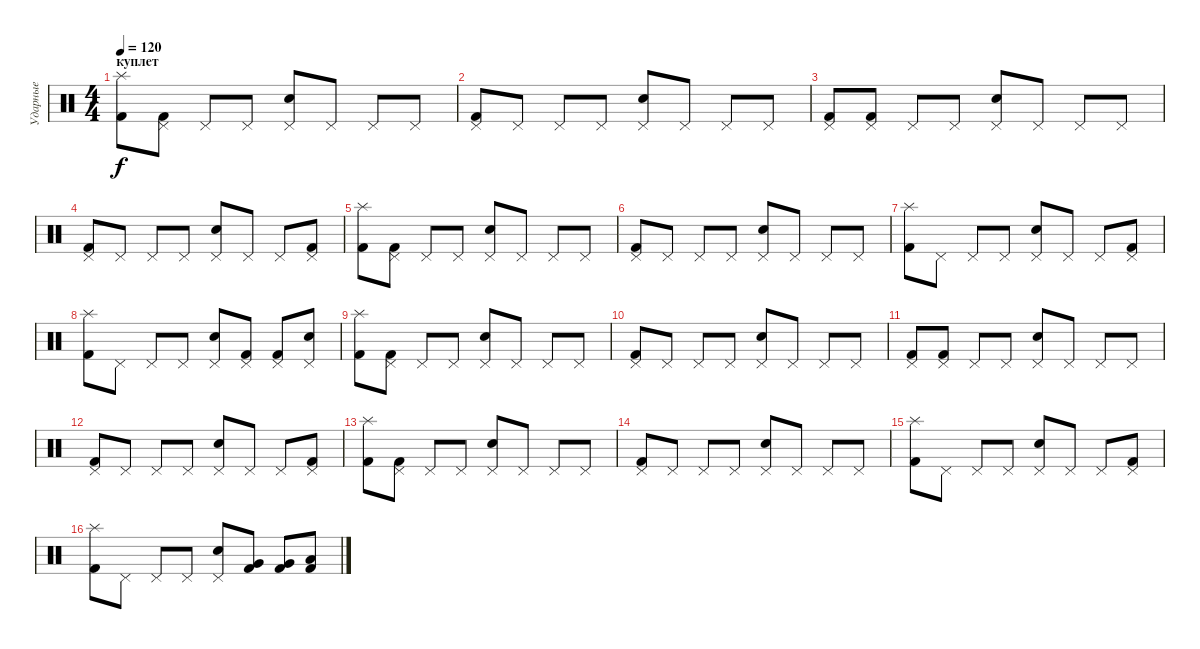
\track ("Ударные" "Ударные") {instrument percussion}
\staff {score}
\articulation defaults
\ts (4 4)
\section ("" "куплет")
\tempo 120
\clef neutral
\ks c
("Splash (hit)" "Kick (hit) 2").8{dy f} ("Pedal Hi-Hat (hit)" "Kick (hit) 2").8 "Pedal Hi-Hat (hit)".8 "Pedal Hi-Hat (hit)".8 ("Pedal Hi-Hat (hit)" "Snare (hit) 2").8 "Pedal Hi-Hat (hit)".8 "Pedal Hi-Hat (hit)".8 "Pedal Hi-Hat (hit)".8 |
("Pedal Hi-Hat (hit)" "Kick (hit) 2").8 "Pedal Hi-Hat (hit)".8 "Pedal Hi-Hat (hit)".8 "Pedal Hi-Hat (hit)".8 ("Pedal Hi-Hat (hit)" "Snare (hit) 2").8 "Pedal Hi-Hat (hit)".8 "Pedal Hi-Hat (hit)".8 "Pedal Hi-Hat (hit)".8 |
("Pedal Hi-Hat (hit)" "Kick (hit) 2").8 ("Pedal Hi-Hat (hit)" "Kick (hit) 2").8 "Pedal Hi-Hat (hit)".8 "Pedal Hi-Hat (hit)".8 ("Pedal Hi-Hat (hit)" "Snare (hit) 2").8 "Pedal Hi-Hat (hit)".8 "Pedal Hi-Hat (hit)".8 "Pedal Hi-Hat (hit)".8 |
("Pedal Hi-Hat (hit)" "Kick (hit) 2").8 "Pedal Hi-Hat (hit)".8 "Pedal Hi-Hat (hit)".8 "Pedal Hi-Hat (hit)".8 ("Pedal Hi-Hat (hit)" "Snare (hit) 2").8 "Pedal Hi-Hat (hit)".8 "Pedal Hi-Hat (hit)".8 ("Pedal Hi-Hat (hit)" "Kick (hit) 2").8 |
("Splash (hit)" "Kick (hit) 2").8 ("Pedal Hi-Hat (hit)" "Kick (hit) 2").8 "Pedal Hi-Hat (hit)".8 "Pedal Hi-Hat (hit)".8 ("Pedal Hi-Hat (hit)" "Snare (hit) 2").8 "Pedal Hi-Hat (hit)".8 "Pedal Hi-Hat (hit)".8 "Pedal Hi-Hat (hit)".8 |
("Pedal Hi-Hat (hit)" "Kick (hit) 2").8 "Pedal Hi-Hat (hit)".8 "Pedal Hi-Hat (hit)".8 "Pedal Hi-Hat (hit)".8 ("Pedal Hi-Hat (hit)" "Snare (hit) 2").8 "Pedal Hi-Hat (hit)".8 "Pedal Hi-Hat (hit)".8 "Pedal Hi-Hat (hit)".8 |
("Splash (hit)" "Kick (hit) 2").8 "Pedal Hi-Hat (hit)".8 "Pedal Hi-Hat (hit)".8 "Pedal Hi-Hat (hit)".8 ("Pedal Hi-Hat (hit)" "Snare (hit) 2").8 "Pedal Hi-Hat (hit)".8 "Pedal Hi-Hat (hit)".8 ("Pedal Hi-Hat (hit)" "Kick (hit) 2").8 |
("Splash (hit)" "Kick (hit) 2").8 "Pedal Hi-Hat (hit)".8 "Pedal Hi-Hat (hit)".8 "Pedal Hi-Hat (hit)".8 ("Pedal Hi-Hat (hit)" "Snare (hit) 2").8 ("Pedal Hi-Hat (hit)" "Kick (hit) 2").8 ("Pedal Hi-Hat (hit)" "Kick (hit) 2").8 ("Pedal Hi-Hat (hit)" "Snare (hit) 2").8 |
("Splash (hit)" "Kick (hit) 2").8 ("Pedal Hi-Hat (hit)" "Kick (hit) 2").8 "Pedal Hi-Hat (hit)".8 "Pedal Hi-Hat (hit)".8 ("Pedal Hi-Hat (hit)" "Snare (hit) 2").8 "Pedal Hi-Hat (hit)".8 "Pedal Hi-Hat (hit)".8 "Pedal Hi-Hat (hit)".8 |
("Pedal Hi-Hat (hit)" "Kick (hit) 2").8 "Pedal Hi-Hat (hit)".8 "Pedal Hi-Hat (hit)".8 "Pedal Hi-Hat (hit)".8 ("Pedal Hi-Hat (hit)" "Snare (hit) 2").8 "Pedal Hi-Hat (hit)".8 "Pedal Hi-Hat (hit)".8 "Pedal Hi-Hat (hit)".8 |
("Pedal Hi-Hat (hit)" "Kick (hit) 2").8 ("Pedal Hi-Hat (hit)" "Kick (hit) 2").8 "Pedal Hi-Hat (hit)".8 "Pedal Hi-Hat (hit)".8 ("Pedal Hi-Hat (hit)" "Snare (hit) 2").8 "Pedal Hi-Hat (hit)".8 "Pedal Hi-Hat (hit)".8 "Pedal Hi-Hat (hit)".8 |
("Pedal Hi-Hat (hit)" "Kick (hit) 2").8 "Pedal Hi-Hat (hit)".8 "Pedal Hi-Hat (hit)".8 "Pedal Hi-Hat (hit)".8 ("Pedal Hi-Hat (hit)" "Snare (hit) 2").8 "Pedal Hi-Hat (hit)".8 "Pedal Hi-Hat (hit)".8 ("Pedal Hi-Hat (hit)" "Kick (hit) 2").8 |
("Splash (hit)" "Kick (hit) 2").8 ("Pedal Hi-Hat (hit)" "Kick (hit) 2").8 "Pedal Hi-Hat (hit)".8 "Pedal Hi-Hat (hit)".8 ("Pedal Hi-Hat (hit)" "Snare (hit) 2").8 "Pedal Hi-Hat (hit)".8 "Pedal Hi-Hat (hit)".8 "Pedal Hi-Hat (hit)".8 |
("Pedal Hi-Hat (hit)" "Kick (hit) 2").8 "Pedal Hi-Hat (hit)".8 "Pedal Hi-Hat (hit)".8 "Pedal Hi-Hat (hit)".8 ("Pedal Hi-Hat (hit)" "Snare (hit) 2").8 "Pedal Hi-Hat (hit)".8 "Pedal Hi-Hat (hit)".8 "Pedal Hi-Hat (hit)".8 |
("Splash (hit)" "Kick (hit) 2").8 "Pedal Hi-Hat (hit)".8 "Pedal Hi-Hat (hit)".8 "Pedal Hi-Hat (hit)".8 ("Pedal Hi-Hat (hit)" "Snare (hit) 2").8 "Pedal Hi-Hat (hit)".8 "Pedal Hi-Hat (hit)".8 ("Pedal Hi-Hat (hit)" "Kick (hit) 2").8 |
("Splash (hit)" "Kick (hit) 2").8 "Pedal Hi-Hat (hit)".8 "Pedal Hi-Hat (hit)".8 "Pedal Hi-Hat (hit)".8 ("Pedal Hi-Hat (hit)" "Snare (hit) 2").8 ("Very Low Tom (hit)" "Kick (hit) 2").8 ("Very Low Tom (hit)" "Kick (hit) 2").8 ("Low Tom (hit)" "Kick (hit) 2").8
